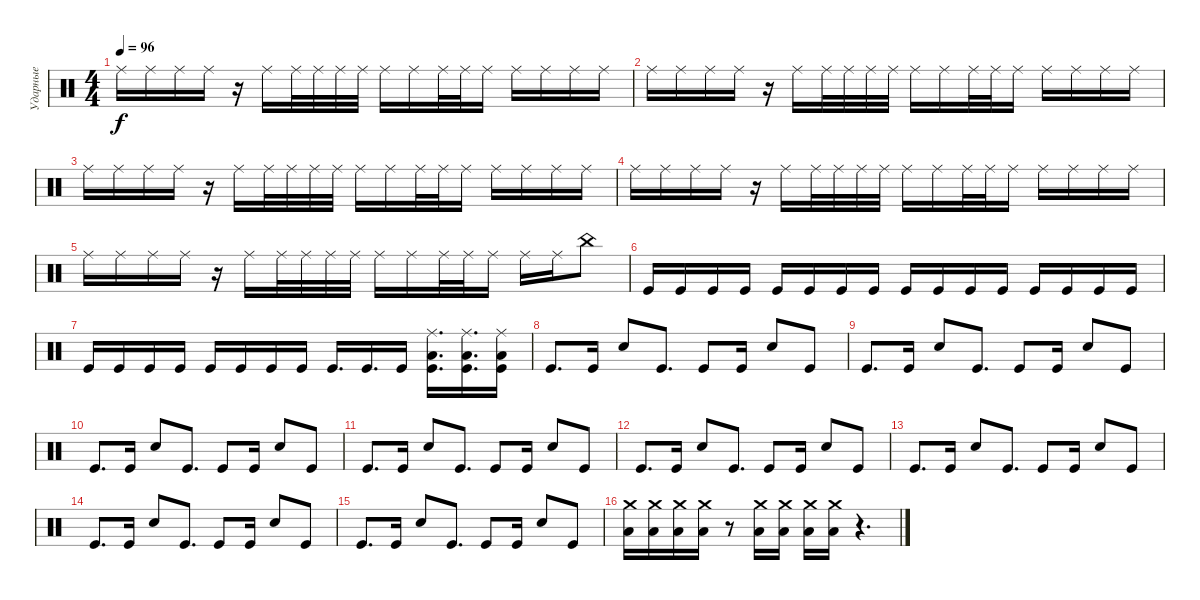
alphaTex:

\track ("Ударные" "Ударные") {instrument percussion}
\staff {score}
\articulation defaults
\ts (4 4)
\tempo 96
\clef neutral
\ks c "Ride (middle)".16{dy f} "Ride (middle)".16 "Ride (middle)".16 "Ride (middle)".16
r.16 "Ride (middle)".16 "Ride (middle)".32 "Ride (middle)".32 "Ride (middle)".32 "Ride (middle)".32 "Ride (middle)".16 "Ride (middle)".16 "Ride (middle)".32 "Ride (middle)".32 "Ride (middle)".16 "Ride (middle)".16 "Ride (middle)".16 "Ride (middle)".16 "Ride (middle)".16 |
"Ride (middle)".16 "Ride (middle)".16 "Ride (middle)".16 "Ride (middle)".16 r.16 "Ride (middle)".16 "Ride (middle)".32 "Ride (middle)".32 "Ride (middle)".32 "Ride (middle)".32 "Ride (middle)".16 "Ride (middle)".16 "Ride (middle)".32 "Ride (middle)".32 "Ride (middle)".16 "Ride (middle)".16 "Ride (middle)".16 "Ride (middle)".16 "Ride (middle)".16 |
"Ride (middle)".16 "Ride (middle)".16 "Ride (middle)".16 "Ride (middle)".16 r.16 "Ride (middle)".16 "Ride (middle)".32 "Ride (middle)".32 "Ride (middle)".32 "Ride (middle)".32 "Ride (middle)".16 "Ride (middle)".16 "Ride (middle)".32 "Ride (middle)".32 "Ride (middle)".16 "Ride (middle)".16 "Ride (middle)".16 "Ride (middle)".16 "Ride (middle)".16 |
"Ride (middle)".16 "Ride (middle)".16 "Ride (middle)".16 "Ride (middle)".16 r.16 "Ride (middle)".16 "Ride (middle)".32 "Ride (middle)".32 "Ride (middle)".32 "Ride (middle)".32 "Ride (middle)".16 "Ride (middle)".16 "Ride (middle)".32 "Ride (middle)".32 "Ride (middle)".16 "Ride (middle)".16 "Ride (middle)".16 "Ride (middle)".16 "Ride (middle)".16 |
"Ride (middle)".16 "Ride (middle)".16 "Ride (middle)".16 "Ride (middle)".16 r.16 "Ride (middle)".16 "Ride (middle)".32 "Ride (middle)".32 "Ride (middle)".32 "Ride (middle)".32 "Ride (middle)".16 "Ride (middle)".16 "Ride (middle)".32 "Ride (middle)".32 "Ride (middle)".16 "Ride (middle)".16 "Ride (middle)".16 "China (hit)".8 |
"Kick (hit)".16 "Kick (hit)".16 "Kick (hit)".16 "Kick (hit)".16 "Kick (hit)".16 "Kick (hit)".16 "Kick (hit)".16 "Kick (hit)".16 "Kick (hit)".16 "Kick (hit)".16 "Kick (hit)".16 "Kick (hit)".16 "Kick (hit)".16 "Kick (hit)".16 "Kick (hit)".16 "Kick (hit)".16 |
"Kick (hit)".16 "Kick (hit)".16 "Kick (hit)".16 "Kick (hit)".16 "Kick (hit)".16 "Kick (hit)".16 "Kick (hit)".16 "Kick (hit)".16 "Kick (hit)".16{d} "Kick (hit)".16{d} "Kick (hit)".16 ("Ride (middle)" "Low Floor Tom (hit)" "Kick (hit)").16{d} ("Ride (middle)" "Low Floor Tom (hit)" "Kick (hit)").16{d} ("Ride (middle)" "Low Floor Tom (hit)" "Kick (hit)").16 |
"Kick (hit)".8{d} "Kick (hit)".16 "Electric Snare (hit)".8 "Kick (hit)".8{d} "Kick (hit)".8 "Kick (hit)".16 "Electric Snare (hit)".8 "Kick (hit)".8 |
"Kick (hit)".8{d} "Kick (hit)".16 "Electric Snare (hit)".8 "Kick (hit)".8{d} "Kick (hit)".8 "Kick (hit)".16 "Electric Snare (hit)".8 "Kick (hit)".8 |
"Kick (hit)".8{d} "Kick (hit)".16 "Electric Snare (hit)".8 "Kick (hit)".8{d} "Kick (hit)".8 "Kick (hit)".16 "Electric Snare (hit)".8 "Kick (hit)".8 |
"Kick (hit)".8{d} "Kick (hit)".16 "Electric Snare (hit)".8 "Kick (hit)".8{d} "Kick (hit)".8 "Kick (hit)".16 "Electric Snare (hit)".8 "Kick (hit)".8 |
"Kick (hit)".8{d} "Kick (hit)".16 "Electric Snare (hit)".8 "Kick (hit)".8{d} "Kick (hit)".8 "Kick (hit)".16 "Electric Snare (hit)".8 "Kick (hit)".8 |
"Kick (hit)".8{d} "Kick (hit)".16 "Electric Snare (hit)".8 "Kick (hit)".8{d} "Kick (hit)".8 "Kick (hit)".16 "Electric Snare (hit)".8 "Kick (hit)".8 |
"Kick (hit)".8{d} "Kick (hit)".16 "Electric Snare (hit)".8 "Kick (hit)".8{d} "Kick (hit)".8 "Kick (hit)".16 "Electric Snare (hit)".8 "Kick (hit)".8 |
"Kick (hit)".8{d} "Kick (hit)".16 "Electric Snare (hit)".8 "Kick (hit)".8{d} "Kick (hit)".8 "Kick (hit)".16 "Electric Snare (hit)".8 "Kick (hit)".8 |
("Crash medium (hit)" "Low Floor Tom (hit)").16 ("Crash medium (hit)" "Low Floor Tom (hit)").16 ("Crash medium (hit)" "Low Floor Tom (hit)").16 ("Crash medium (hit)" "Low Floor Tom (hit)").16 r.8 ("Crash medium (hit)" "Low Floor Tom (hit)").16 ("Crash medium (hit)" "Low Floor Tom (hit)").16 ("Crash medium (hit)" "Low Floor Tom (hit)").16 ("Crash medium (hit)" "Low Floor Tom (hit)").16 r.4{d}
